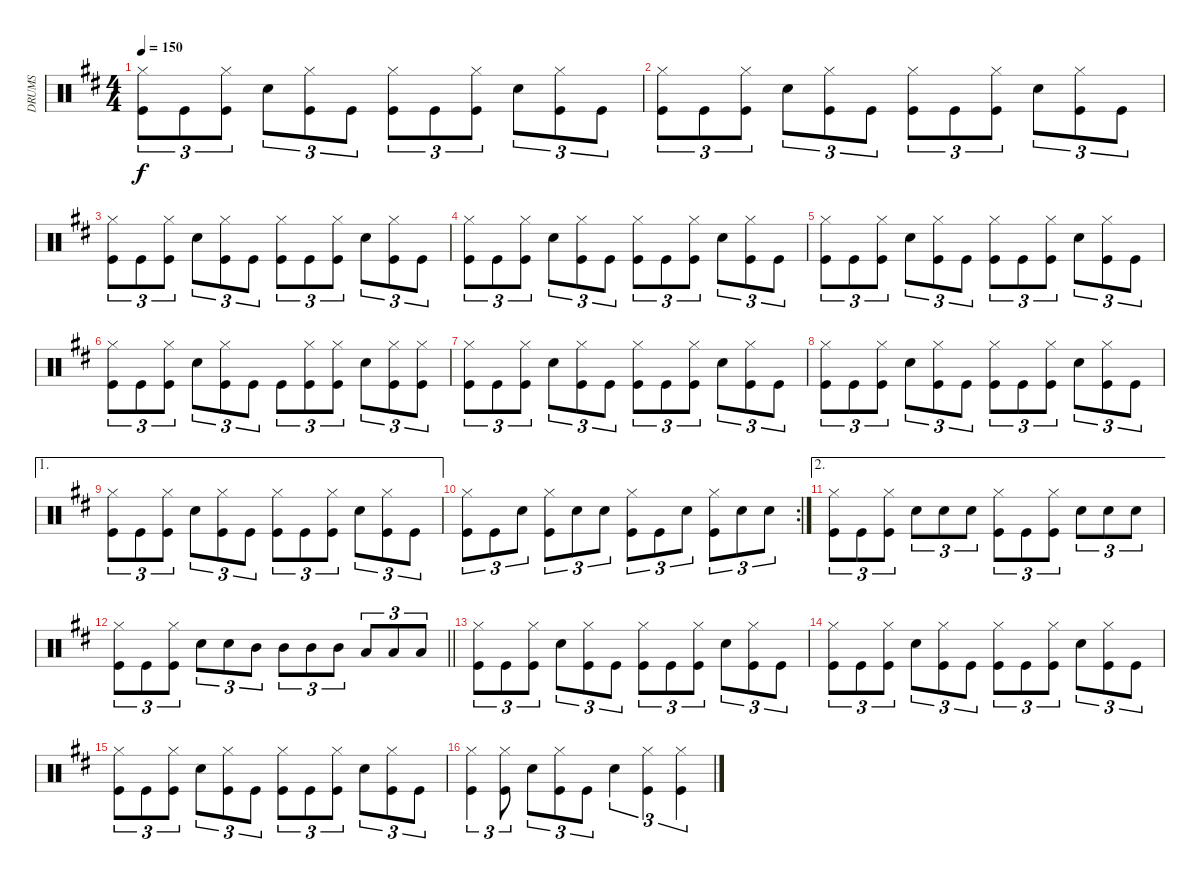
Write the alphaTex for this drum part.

\track ("DRUMS" "DRUMS") {instrument percussion}
\staff {score}
\articulation defaults
\ts (4 4)
\tempo 150
\clef neutral
\ks d
("Hi-Hat (closed)" "Kick (hit)").8{tu (3 2) dy f} "Kick (hit)".8{tu (3 2)} ("Hi-Hat (closed)" "Kick (hit)").8{tu (3 2)} "Snare (hit) 2".8{tu (3 2)} ("Hi-Hat (closed)" "Kick (hit)").8{tu (3 2)} "Kick (hit)".8{tu (3 2)} ("Hi-Hat (closed)" "Kick (hit)").8{tu (3 2)} "Kick (hit)".8{tu (3 2)} ("Hi-Hat (closed)" "Kick (hit)").8{tu (3 2)} "Snare (hit) 2".8{tu (3 2)} ("Hi-Hat (closed)" "Kick (hit)").8{tu (3 2)} "Kick (hit)".8{tu (3 2)} |
("Hi-Hat (closed)" "Kick (hit)").8{tu (3 2)} "Kick (hit)".8{tu (3 2)} ("Hi-Hat (closed)" "Kick (hit)").8{tu (3 2)} "Snare (hit) 2".8{tu (3 2)} ("Hi-Hat (closed)" "Kick (hit)").8{tu (3 2)} "Kick (hit)".8{tu (3 2)} ("Hi-Hat (closed)" "Kick (hit)").8{tu (3 2)} "Kick (hit)".8{tu (3 2)} ("Hi-Hat (closed)" "Kick (hit)").8{tu (3 2)} "Snare (hit) 2".8{tu (3 2)} ("Hi-Hat (closed)" "Kick (hit)").8{tu (3 2)} "Kick (hit)".8{tu (3 2)} |
("Hi-Hat (closed)" "Kick (hit)").8{tu (3 2)} "Kick (hit)".8{tu (3 2)} ("Hi-Hat (closed)" "Kick (hit)").8{tu (3 2)} "Snare (hit) 2".8{tu (3 2)} ("Hi-Hat (closed)" "Kick (hit)").8{tu (3 2)} "Kick (hit)".8{tu (3 2)} ("Hi-Hat (closed)" "Kick (hit)").8{tu (3 2)} "Kick (hit)".8{tu (3 2)} ("Hi-Hat (closed)" "Kick (hit)").8{tu (3 2)} "Snare (hit) 2".8{tu (3 2)} ("Hi-Hat (closed)" "Kick (hit)").8{tu (3 2)} "Kick (hit)".8{tu (3 2)} |
("Hi-Hat (closed)" "Kick (hit)").8{tu (3 2)} "Kick (hit)".8{tu (3 2)} ("Hi-Hat (closed)" "Kick (hit)").8{tu (3 2)} "Snare (hit) 2".8{tu (3 2)} ("Hi-Hat (closed)" "Kick (hit)").8{tu (3 2)} "Kick (hit)".8{tu (3 2)} ("Hi-Hat (closed)" "Kick (hit)").8{tu (3 2)} "Kick (hit)".8{tu (3 2)} ("Hi-Hat (closed)" "Kick (hit)").8{tu (3 2)} "Snare (hit) 2".8{tu (3 2)} ("Hi-Hat (closed)" "Kick (hit)").8{tu (3 2)} "Kick (hit)".8{tu (3 2)} |
("Hi-Hat (closed)" "Kick (hit)").8{tu (3 2)} "Kick (hit)".8{tu (3 2)} ("Hi-Hat (closed)" "Kick (hit)").8{tu (3 2)} "Snare (hit) 2".8{tu (3 2)} ("Hi-Hat (closed)" "Kick (hit)").8{tu (3 2)} "Kick (hit)".8{tu (3 2)} ("Hi-Hat (closed)" "Kick (hit)").8{tu (3 2)} "Kick (hit)".8{tu (3 2)} ("Hi-Hat (closed)" "Kick (hit)").8{tu (3 2)} "Snare (hit) 2".8{tu (3 2)} ("Hi-Hat (closed)" "Kick (hit)").8{tu (3 2)} "Kick (hit)".8{tu (3 2)} |
("Hi-Hat (closed)" "Kick (hit)").8{tu (3 2)} "Kick (hit)".8{tu (3 2)} ("Hi-Hat (closed)" "Kick (hit)").8{tu (3 2)} "Snare (hit) 2".8{tu (3 2)} ("Hi-Hat (closed)" "Kick (hit)").8{tu (3 2)} "Kick (hit)".8{tu (3 2)} "Kick (hit)".8{tu (3 2)} ("Hi-Hat (closed)" "Kick (hit)").8{tu (3 2)} ("Hi-Hat (closed)" "Kick (hit)").8{tu (3 2)} "Snare (hit) 2".8{tu (3 2)} ("Hi-Hat (closed)" "Kick (hit)").8{tu (3 2)} ("Hi-Hat (closed)" "Kick (hit)").8{tu (3 2)} |
("Hi-Hat (closed)" "Kick (hit)").8{tu (3 2)} "Kick (hit)".8{tu (3 2)} ("Hi-Hat (closed)" "Kick (hit)").8{tu (3 2)} "Snare (hit) 2".8{tu (3 2)} ("Hi-Hat (closed)" "Kick (hit)").8{tu (3 2)} "Kick (hit)".8{tu (3 2)} ("Hi-Hat (closed)" "Kick (hit)").8{tu (3 2)} "Kick (hit)".8{tu (3 2)} ("Hi-Hat (closed)" "Kick (hit)").8{tu (3 2)} "Snare (hit) 2".8{tu (3 2)} ("Hi-Hat (closed)" "Kick (hit)").8{tu (3 2)} "Kick (hit)".8{tu (3 2)} |
("Hi-Hat (closed)" "Kick (hit)").8{tu (3 2)} "Kick (hit)".8{tu (3 2)} ("Hi-Hat (closed)" "Kick (hit)").8{tu (3 2)} "Snare (hit) 2".8{tu (3 2)} ("Hi-Hat (closed)" "Kick (hit)").8{tu (3 2)} "Kick (hit)".8{tu (3 2)} ("Hi-Hat (closed)" "Kick (hit)").8{tu (3 2)} "Kick (hit)".8{tu (3 2)} ("Hi-Hat (closed)" "Kick (hit)").8{tu (3 2)} "Snare (hit) 2".8{tu (3 2)} ("Hi-Hat (closed)" "Kick (hit)").8{tu (3 2)} "Kick (hit)".8{tu (3 2)} |
\ae 1
("Hi-Hat (closed)" "Kick (hit)").8{tu (3 2)} "Kick (hit)".8{tu (3 2)} ("Hi-Hat (closed)" "Kick (hit)").8{tu (3 2)} "Snare (hit) 2".8{tu (3 2)} ("Hi-Hat (closed)" "Kick (hit)").8{tu (3 2)} "Kick (hit)".8{tu (3 2)} ("Hi-Hat (closed)" "Kick (hit)").8{tu (3 2)} "Kick (hit)".8{tu (3 2)} ("Hi-Hat (closed)" "Kick (hit)").8{tu (3 2)} "Snare (hit) 2".8{tu (3 2)} ("Hi-Hat (closed)" "Kick (hit)").8{tu (3 2)} "Kick (hit)".8{tu (3 2)} |
\rc 2
("Hi-Hat (closed)" "Kick (hit)").8{tu (3 2)} "Kick (hit)".8{tu (3 2)} "Snare (hit) 2".8{tu (3 2)} ("Hi-Hat (closed)" "Kick (hit)").8{tu (3 2)} "Snare (hit) 2".8{tu (3 2)} "Snare (hit) 2".8{tu (3 2)} ("Hi-Hat (closed)" "Kick (hit)").8{tu (3 2)} "Kick (hit)".8{tu (3 2)} "Snare (hit) 2".8{tu (3 2)} ("Hi-Hat (closed)" "Kick (hit)").8{tu (3 2)} "Snare (hit) 2".8{tu (3 2)} "Snare (hit) 2".8{tu (3 2)} |
\ae 2
("Hi-Hat (closed)" "Kick (hit)").8{tu (3 2)} "Kick (hit)".8{tu (3 2)} ("Hi-Hat (closed)" "Kick (hit)").8{tu (3 2)} "Snare (hit) 2".8{tu (3 2)} "Snare (hit) 2".8{tu (3 2)} "Snare (hit) 2".8{tu (3 2)} ("Hi-Hat (closed)" "Kick (hit)").8{tu (3 2)} "Kick (hit)".8{tu (3 2)} ("Hi-Hat (closed)" "Kick (hit)").8{tu (3 2)} "Snare (hit) 2".8{tu (3 2)} "Snare (hit) 2".8{tu (3 2)} "Snare (hit) 2".8{tu (3 2)} |
\barLineRight lightlight
("Hi-Hat (closed)" "Kick (hit)").8{tu (3 2)} "Kick (hit)".8{tu (3 2)} ("Hi-Hat (closed)" "Kick (hit)").8{tu (3 2)} "Snare (hit) 2".8{tu (3 2)} "Snare (hit) 2".8{tu (3 2)} "Mid Tom (hit)".8{tu (3 2)} "Mid Tom (hit)".8{tu (3 2)} "Mid Tom (hit)".8{tu (3 2)} "Mid Tom (hit)".8{tu (3 2)} "Low Tom (hit)".8{tu (3 2)} "Low Tom (hit)".8{tu (3 2)} "Low Tom (hit)".8{tu (3 2)} |
("Hi-Hat (closed)" "Kick (hit)").8{tu (3 2)} "Kick (hit)".8{tu (3 2)} ("Hi-Hat (closed)" "Kick (hit)").8{tu (3 2)} "Snare (hit) 2".8{tu (3 2)} ("Hi-Hat (closed)" "Kick (hit)").8{tu (3 2)} "Kick (hit)".8{tu (3 2)} ("Hi-Hat (closed)" "Kick (hit)").8{tu (3 2)} "Kick (hit)".8{tu (3 2)} ("Hi-Hat (closed)" "Kick (hit)").8{tu (3 2)} "Snare (hit) 2".8{tu (3 2)} ("Hi-Hat (closed)" "Kick (hit)").8{tu (3 2)} "Kick (hit)".8{tu (3 2)} |
("Hi-Hat (closed)" "Kick (hit)").8{tu (3 2)} "Kick (hit)".8{tu (3 2)} ("Hi-Hat (closed)" "Kick (hit)").8{tu (3 2)} "Snare (hit) 2".8{tu (3 2)} ("Hi-Hat (closed)" "Kick (hit)").8{tu (3 2)} "Kick (hit)".8{tu (3 2)} ("Hi-Hat (closed)" "Kick (hit)").8{tu (3 2)} "Kick (hit)".8{tu (3 2)} ("Hi-Hat (closed)" "Kick (hit)").8{tu (3 2)} "Snare (hit) 2".8{tu (3 2)} ("Hi-Hat (closed)" "Kick (hit)").8{tu (3 2)} "Kick (hit)".8{tu (3 2)} |
("Hi-Hat (closed)" "Kick (hit)").8{tu (3 2)} "Kick (hit)".8{tu (3 2)} ("Hi-Hat (closed)" "Kick (hit)").8{tu (3 2)} "Snare (hit) 2".8{tu (3 2)} ("Hi-Hat (closed)" "Kick (hit)").8{tu (3 2)} "Kick (hit)".8{tu (3 2)} ("Hi-Hat (closed)" "Kick (hit)").8{tu (3 2)} "Kick (hit)".8{tu (3 2)} ("Hi-Hat (closed)" "Kick (hit)").8{tu (3 2)} "Snare (hit) 2".8{tu (3 2)} ("Hi-Hat (closed)" "Kick (hit)").8{tu (3 2)} "Kick (hit)".8{tu (3 2)} |
("Hi-Hat (closed)" "Kick (hit)").4{tu (3 2)} ("Hi-Hat (closed)" "Kick (hit)").8{tu (3 2)} "Snare (hit) 2".8{tu (3 2)} ("Hi-Hat (closed)" "Kick (hit)").8{tu (3 2)} "Kick (hit)".8{tu (3 2)} "Snare (hit) 2".4{tu (3 2)} ("Hi-Hat (closed)" "Kick (hit)").4{tu (3 2)} ("Hi-Hat (closed)" "Kick (hit)").4{tu (3 2)}
